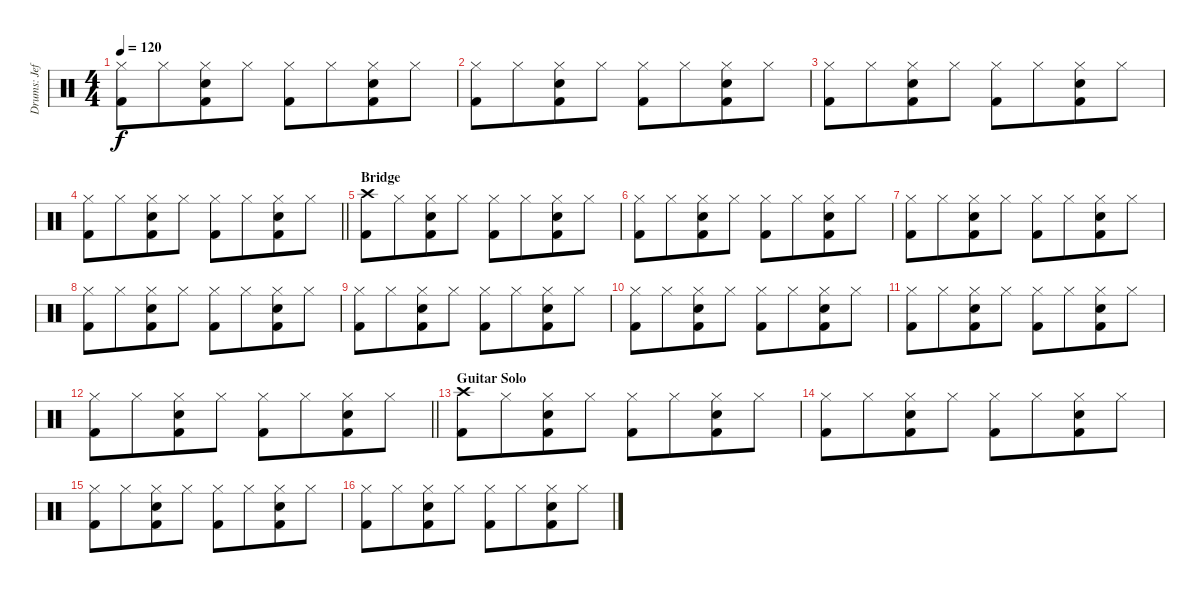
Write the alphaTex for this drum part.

\track ("Drums: Jeff" "Drums: Jef") {instrument percussion}
\staff {score}
\articulation defaults
\ts (4 4)
\tempo 120
\clef neutral
\ks c
("Hi-Hat (closed)" "Kick (hit) 2").8{dy f} "Hi-Hat (closed)".8{beam merge} ("Hi-Hat (closed)" "Electric Snare (hit)" "Kick (hit) 2").8 "Hi-Hat (closed)".8 ("Hi-Hat (closed)" "Kick (hit) 2").8 "Hi-Hat (closed)".8{beam merge} ("Hi-Hat (closed)" "Electric Snare (hit)" "Kick (hit) 2").8 "Hi-Hat (closed)".8 |
("Hi-Hat (closed)" "Kick (hit) 2").8 "Hi-Hat (closed)".8{beam merge} ("Hi-Hat (closed)" "Electric Snare (hit)" "Kick (hit) 2").8 "Hi-Hat (closed)".8 ("Hi-Hat (closed)" "Kick (hit) 2").8 "Hi-Hat (closed)".8{beam merge} ("Hi-Hat (closed)" "Electric Snare (hit)" "Kick (hit) 2").8 "Hi-Hat (closed)".8 |
("Hi-Hat (closed)" "Kick (hit) 2").8 "Hi-Hat (closed)".8{beam merge} ("Hi-Hat (closed)" "Electric Snare (hit)" "Kick (hit) 2").8 "Hi-Hat (closed)".8 ("Hi-Hat (closed)" "Kick (hit) 2").8 "Hi-Hat (closed)".8{beam merge} ("Hi-Hat (closed)" "Electric Snare (hit)" "Kick (hit) 2").8 "Hi-Hat (closed)".8 |
\barLineRight lightlight
("Hi-Hat (closed)" "Kick (hit) 2").8 "Hi-Hat (closed)".8{beam merge} ("Hi-Hat (closed)" "Electric Snare (hit)" "Kick (hit) 2").8 "Hi-Hat (closed)".8 ("Hi-Hat (closed)" "Kick (hit) 2").8 "Hi-Hat (closed)".8{beam merge} ("Hi-Hat (closed)" "Electric Snare (hit)" "Kick (hit) 2").8 "Hi-Hat (closed)".8 |
\section ("" "Bridge")
("Crash high (hit)" "Kick (hit) 2").8 "Hi-Hat (closed)".8{beam merge} ("Hi-Hat (closed)" "Electric Snare (hit)" "Kick (hit) 2").8 "Hi-Hat (closed)".8 ("Hi-Hat (closed)" "Kick (hit) 2").8 "Hi-Hat (closed)".8{beam merge} ("Hi-Hat (closed)" "Electric Snare (hit)" "Kick (hit) 2").8 "Hi-Hat (closed)".8 |
("Hi-Hat (closed)" "Kick (hit) 2").8 "Hi-Hat (closed)".8{beam merge} ("Hi-Hat (closed)" "Electric Snare (hit)" "Kick (hit) 2").8 "Hi-Hat (closed)".8 ("Hi-Hat (closed)" "Kick (hit) 2").8 "Hi-Hat (closed)".8{beam merge} ("Hi-Hat (closed)" "Electric Snare (hit)" "Kick (hit) 2").8 "Hi-Hat (closed)".8 |
("Hi-Hat (closed)" "Kick (hit) 2").8 "Hi-Hat (closed)".8{beam merge} ("Hi-Hat (closed)" "Electric Snare (hit)" "Kick (hit) 2").8 "Hi-Hat (closed)".8 ("Hi-Hat (closed)" "Kick (hit) 2").8 "Hi-Hat (closed)".8{beam merge} ("Hi-Hat (closed)" "Electric Snare (hit)" "Kick (hit) 2").8 "Hi-Hat (closed)".8 |
("Hi-Hat (closed)" "Kick (hit) 2").8 "Hi-Hat (closed)".8{beam merge} ("Hi-Hat (closed)" "Electric Snare (hit)" "Kick (hit) 2").8 "Hi-Hat (closed)".8 ("Hi-Hat (closed)" "Kick (hit) 2").8 "Hi-Hat (closed)".8{beam merge} ("Hi-Hat (closed)" "Electric Snare (hit)" "Kick (hit) 2").8 "Hi-Hat (closed)".8 |
("Hi-Hat (closed)" "Kick (hit) 2").8 "Hi-Hat (closed)".8{beam merge} ("Hi-Hat (closed)" "Electric Snare (hit)" "Kick (hit) 2").8 "Hi-Hat (closed)".8 ("Hi-Hat (closed)" "Kick (hit) 2").8 "Hi-Hat (closed)".8{beam merge} ("Hi-Hat (closed)" "Electric Snare (hit)" "Kick (hit) 2").8 "Hi-Hat (closed)".8 |
("Hi-Hat (closed)" "Kick (hit) 2").8 "Hi-Hat (closed)".8{beam merge} ("Hi-Hat (closed)" "Electric Snare (hit)" "Kick (hit) 2").8 "Hi-Hat (closed)".8 ("Hi-Hat (closed)" "Kick (hit) 2").8 "Hi-Hat (closed)".8{beam merge} ("Hi-Hat (closed)" "Electric Snare (hit)" "Kick (hit) 2").8 "Hi-Hat (closed)".8 |
("Hi-Hat (closed)" "Kick (hit) 2").8 "Hi-Hat (closed)".8{beam merge} ("Hi-Hat (closed)" "Electric Snare (hit)" "Kick (hit) 2").8 "Hi-Hat (closed)".8 ("Hi-Hat (closed)" "Kick (hit) 2").8 "Hi-Hat (closed)".8{beam merge} ("Hi-Hat (closed)" "Electric Snare (hit)" "Kick (hit) 2").8 "Hi-Hat (closed)".8 |
\barLineRight lightlight
("Hi-Hat (closed)" "Kick (hit) 2").8 "Hi-Hat (closed)".8{beam merge} ("Hi-Hat (closed)" "Electric Snare (hit)" "Kick (hit) 2").8 "Hi-Hat (closed)".8 ("Hi-Hat (closed)" "Kick (hit) 2").8 "Hi-Hat (closed)".8{beam merge} ("Hi-Hat (closed)" "Electric Snare (hit)" "Kick (hit) 2").8 "Hi-Hat (closed)".8 |
\section ("" "Guitar Solo")
("Crash high (hit)" "Kick (hit) 2").8 "Hi-Hat (closed)".8{beam merge} ("Hi-Hat (closed)" "Electric Snare (hit)" "Kick (hit) 2").8 "Hi-Hat (closed)".8 ("Hi-Hat (closed)" "Kick (hit) 2").8 "Hi-Hat (closed)".8{beam merge} ("Hi-Hat (closed)" "Electric Snare (hit)" "Kick (hit) 2").8 "Hi-Hat (closed)".8 |
("Hi-Hat (closed)" "Kick (hit) 2").8 "Hi-Hat (closed)".8{beam merge} ("Hi-Hat (closed)" "Electric Snare (hit)" "Kick (hit) 2").8 "Hi-Hat (closed)".8 ("Hi-Hat (closed)" "Kick (hit) 2").8 "Hi-Hat (closed)".8{beam merge} ("Hi-Hat (closed)" "Electric Snare (hit)" "Kick (hit) 2").8 "Hi-Hat (closed)".8 |
("Hi-Hat (closed)" "Kick (hit) 2").8 "Hi-Hat (closed)".8{beam merge} ("Hi-Hat (closed)" "Electric Snare (hit)" "Kick (hit) 2").8 "Hi-Hat (closed)".8 ("Hi-Hat (closed)" "Kick (hit) 2").8 "Hi-Hat (closed)".8{beam merge} ("Hi-Hat (closed)" "Electric Snare (hit)" "Kick (hit) 2").8 "Hi-Hat (closed)".8 |
("Hi-Hat (closed)" "Kick (hit) 2").8 "Hi-Hat (closed)".8{beam merge} ("Hi-Hat (closed)" "Electric Snare (hit)" "Kick (hit) 2").8 "Hi-Hat (closed)".8 ("Hi-Hat (closed)" "Kick (hit) 2").8 "Hi-Hat (closed)".8{beam merge} ("Hi-Hat (closed)" "Electric Snare (hit)" "Kick (hit) 2").8 "Hi-Hat (closed)".8
